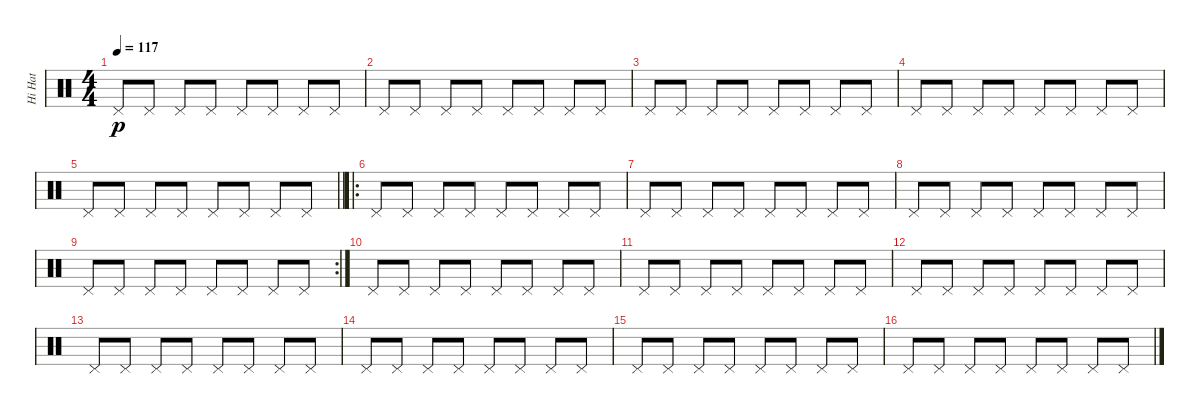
\track ("Hi Hat" "Hi Hat") {instrument percussion}
\staff {score}
\articulation defaults
\ts (4 4)
\tempo 117
\clef neutral
\ks c "Pedal Hi-Hat (hit)".8{dy p} "Pedal Hi-Hat (hit)".8 "Pedal Hi-Hat (hit)".8 "Pedal Hi-Hat (hit)".8 "Pedal Hi-Hat (hit)".8 "Pedal Hi-Hat (hit)".8 "Pedal Hi-Hat (hit)".8 "Pedal Hi-Hat (hit)".8
|
"Pedal Hi-Hat (hit)".8 "Pedal Hi-Hat (hit)".8 "Pedal Hi-Hat (hit)".8 "Pedal Hi-Hat (hit)".8 "Pedal Hi-Hat (hit)".8 "Pedal Hi-Hat (hit)".8 "Pedal Hi-Hat (hit)".8 "Pedal Hi-Hat (hit)".8 |
"Pedal Hi-Hat (hit)".8 "Pedal Hi-Hat (hit)".8 "Pedal Hi-Hat (hit)".8 "Pedal Hi-Hat (hit)".8 "Pedal Hi-Hat (hit)".8 "Pedal Hi-Hat (hit)".8 "Pedal Hi-Hat (hit)".8 "Pedal Hi-Hat (hit)".8 |
"Pedal Hi-Hat (hit)".8 "Pedal Hi-Hat (hit)".8 "Pedal Hi-Hat (hit)".8 "Pedal Hi-Hat (hit)".8 "Pedal Hi-Hat (hit)".8 "Pedal Hi-Hat (hit)".8 "Pedal Hi-Hat (hit)".8 "Pedal Hi-Hat (hit)".8 |
\barLineRight lightlight "Pedal Hi-Hat (hit)".8 "Pedal Hi-Hat (hit)".8 "Pedal Hi-Hat (hit)".8 "Pedal Hi-Hat (hit)".8 "Pedal Hi-Hat (hit)".8 "Pedal Hi-Hat (hit)".8 "Pedal Hi-Hat (hit)".8 "Pedal Hi-Hat (hit)".8
|
\ro "Pedal Hi-Hat (hit)".8 "Pedal Hi-Hat (hit)".8 "Pedal Hi-Hat (hit)".8 "Pedal Hi-Hat (hit)".8 "Pedal Hi-Hat (hit)".8 "Pedal Hi-Hat (hit)".8 "Pedal Hi-Hat (hit)".8 "Pedal Hi-Hat (hit)".8
|
"Pedal Hi-Hat (hit)".8 "Pedal Hi-Hat (hit)".8 "Pedal Hi-Hat (hit)".8 "Pedal Hi-Hat (hit)".8 "Pedal Hi-Hat (hit)".8 "Pedal Hi-Hat (hit)".8 "Pedal Hi-Hat (hit)".8 "Pedal Hi-Hat (hit)".8 |
"Pedal Hi-Hat (hit)".8 "Pedal Hi-Hat (hit)".8 "Pedal Hi-Hat (hit)".8 "Pedal Hi-Hat (hit)".8 "Pedal Hi-Hat (hit)".8 "Pedal Hi-Hat (hit)".8 "Pedal Hi-Hat (hit)".8 "Pedal Hi-Hat (hit)".8 |
\rc 2 "Pedal Hi-Hat (hit)".8 "Pedal Hi-Hat (hit)".8 "Pedal Hi-Hat (hit)".8 "Pedal Hi-Hat (hit)".8 "Pedal Hi-Hat (hit)".8 "Pedal Hi-Hat (hit)".8 "Pedal Hi-Hat (hit)".8 "Pedal Hi-Hat (hit)".8
|
"Pedal Hi-Hat (hit)".8 "Pedal Hi-Hat (hit)".8 "Pedal Hi-Hat (hit)".8 "Pedal Hi-Hat (hit)".8 "Pedal Hi-Hat (hit)".8 "Pedal Hi-Hat (hit)".8 "Pedal Hi-Hat (hit)".8 "Pedal Hi-Hat (hit)".8 |
"Pedal Hi-Hat (hit)".8 "Pedal Hi-Hat (hit)".8 "Pedal Hi-Hat (hit)".8 "Pedal Hi-Hat (hit)".8 "Pedal Hi-Hat (hit)".8 "Pedal Hi-Hat (hit)".8 "Pedal Hi-Hat (hit)".8 "Pedal Hi-Hat (hit)".8 |
"Pedal Hi-Hat (hit)".8 "Pedal Hi-Hat (hit)".8 "Pedal Hi-Hat (hit)".8 "Pedal Hi-Hat (hit)".8 "Pedal Hi-Hat (hit)".8 "Pedal Hi-Hat (hit)".8 "Pedal Hi-Hat (hit)".8 "Pedal Hi-Hat (hit)".8 |
"Pedal Hi-Hat (hit)".8 "Pedal Hi-Hat (hit)".8 "Pedal Hi-Hat (hit)".8 "Pedal Hi-Hat (hit)".8 "Pedal Hi-Hat (hit)".8 "Pedal Hi-Hat (hit)".8 "Pedal Hi-Hat (hit)".8 "Pedal Hi-Hat (hit)".8 |
"Pedal Hi-Hat (hit)".8 "Pedal Hi-Hat (hit)".8 "Pedal Hi-Hat (hit)".8 "Pedal Hi-Hat (hit)".8 "Pedal Hi-Hat (hit)".8 "Pedal Hi-Hat (hit)".8 "Pedal Hi-Hat (hit)".8 "Pedal Hi-Hat (hit)".8 |
"Pedal Hi-Hat (hit)".8 "Pedal Hi-Hat (hit)".8 "Pedal Hi-Hat (hit)".8 "Pedal Hi-Hat (hit)".8 "Pedal Hi-Hat (hit)".8 "Pedal Hi-Hat (hit)".8 "Pedal Hi-Hat (hit)".8 "Pedal Hi-Hat (hit)".8 |
"Pedal Hi-Hat (hit)".8 "Pedal Hi-Hat (hit)".8 "Pedal Hi-Hat (hit)".8 "Pedal Hi-Hat (hit)".8 "Pedal Hi-Hat (hit)".8 "Pedal Hi-Hat (hit)".8 "Pedal Hi-Hat (hit)".8 "Pedal Hi-Hat (hit)".8
